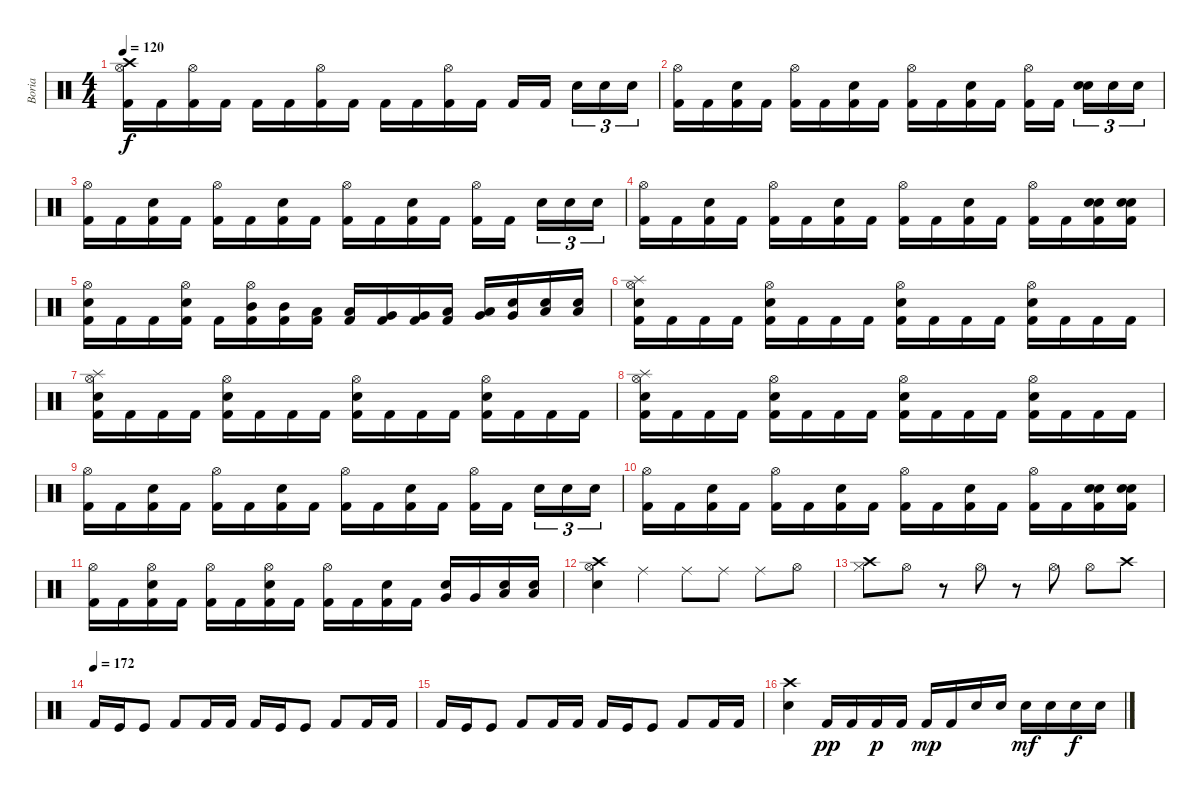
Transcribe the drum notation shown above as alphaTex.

\track ("Boria" "Boria") {instrument percussion}
\staff {score}
\articulation defaults
\ts (4 4)
\tempo 120
\clef neutral
\ks c
("Crash high (hit)" "Hi-Hat (open)" "Kick (hit) 2").16{dy f} "Kick (hit) 2".16 ("Hi-Hat (open)" "Kick (hit) 2").16 "Kick (hit) 2".16 "Kick (hit) 2".16 "Kick (hit) 2".16 ("Hi-Hat (open)" "Kick (hit) 2").16 "Kick (hit) 2".16 "Kick (hit) 2".16 "Kick (hit) 2".16 ("Hi-Hat (open)" "Kick (hit) 2").16 "Kick (hit) 2".16 "Kick (hit) 2".16 "Kick (hit) 2".16 "Snare (hit) 2".16{tu (3 2)} "Snare (hit) 2".16{tu (3 2)} "Snare (hit) 2".16{tu (3 2)} |
("Hi-Hat (open)" "Kick (hit) 2").16 "Kick (hit) 2".16 ("Electric Snare (hit)" "Kick (hit) 2").16 "Kick (hit) 2".16 ("Hi-Hat (open)" "Kick (hit) 2").16 "Kick (hit) 2".16 ("Electric Snare (hit)" "Kick (hit) 2").16 "Kick (hit) 2".16 ("Hi-Hat (open)" "Kick (hit) 2").16 "Kick (hit) 2".16 ("Electric Snare (hit)" "Kick (hit) 2").16 "Kick (hit) 2".16 ("Hi-Hat (open)" "Kick (hit) 2").16 "Kick (hit) 2".16 ("Electric Snare (hit)" "Snare (hit) 2").16{tu (3 2)} "Snare (hit) 2".16{tu (3 2)} "Snare (hit) 2".16{tu (3 2)} |
("Hi-Hat (open)" "Kick (hit) 2").16 "Kick (hit) 2".16 ("Electric Snare (hit)" "Kick (hit) 2").16 "Kick (hit) 2".16 ("Hi-Hat (open)" "Kick (hit) 2").16 "Kick (hit) 2".16 ("Electric Snare (hit)" "Kick (hit) 2").16 "Kick (hit) 2".16 ("Hi-Hat (open)" "Kick (hit) 2").16 "Kick (hit) 2".16 ("Electric Snare (hit)" "Kick (hit) 2").16 "Kick (hit) 2".16 ("Hi-Hat (open)" "Kick (hit) 2").16 "Kick (hit) 2".16 "Snare (hit) 2".16{tu (3 2)} "Snare (hit) 2".16{tu (3 2)} "Snare (hit) 2".16{tu (3 2)} |
("Hi-Hat (open)" "Kick (hit) 2").16 "Kick (hit) 2".16 ("Electric Snare (hit)" "Kick (hit) 2").16 "Kick (hit) 2".16 ("Hi-Hat (open)" "Kick (hit) 2").16 "Kick (hit) 2".16 ("Electric Snare (hit)" "Kick (hit) 2").16 "Kick (hit) 2".16 ("Hi-Hat (open)" "Kick (hit) 2").16 "Kick (hit) 2".16 ("Electric Snare (hit)" "Kick (hit) 2").16 "Kick (hit) 2".16 ("Hi-Hat (open)" "Kick (hit) 2").16 "Kick (hit) 2".16 ("Electric Snare (hit)" "Kick (hit) 2" "Snare (hit) 2").16 ("Electric Snare (hit)" "Kick (hit) 2" "Snare (hit) 2").16 |
("Hi-Hat (open)" "Snare (hit) 2" "Kick (hit) 2").16 "Kick (hit) 2".16 "Kick (hit) 2".16 ("Hi-Hat (open)" "Snare (hit) 2" "Kick (hit) 2").16 "Kick (hit) 2".16 ("Hi-Hat (open)" "Mid Tom (hit)" "Kick (hit) 2").16 ("Mid Tom (hit)" "Kick (hit) 2").16 ("Low Tom (hit)" "Kick (hit) 2").16 ("Low Tom (hit)" "Kick (hit) 2").16 ("Very Low Tom (hit)" "Kick (hit) 2").16 ("Very Low Tom (hit)" "Kick (hit) 2").16 ("Low Floor Tom (hit)" "Kick (hit) 2").16 ("Low Floor Tom (hit)" "Very Low Tom (hit)").16 ("Electric Snare (hit)" "Very Low Tom (hit)").16 ("Snare (hit) 2" "Low Floor Tom (hit)").16 ("Electric Snare (hit)" "Low Floor Tom (hit)").16 |
("Snare (hit) 2" "Splash (hit)" "Hi-Hat (open)" "Kick (hit) 2").16 "Kick (hit) 2".16 "Kick (hit) 2".16 "Kick (hit) 2".16 ("Hi-Hat (open)" "Snare (hit) 2" "Kick (hit) 2").16 "Kick (hit) 2".16 "Kick (hit) 2".16 "Kick (hit) 2".16 ("Snare (hit) 2" "Hi-Hat (open)" "Kick (hit) 2").16 "Kick (hit) 2".16 "Kick (hit) 2".16 "Kick (hit) 2".16 ("Hi-Hat (open)" "Snare (hit) 2" "Kick (hit) 2").16 "Kick (hit) 2".16 "Kick (hit) 2".16 "Kick (hit) 2".16 |
("Snare (hit) 2" "Splash (hit)" "Hi-Hat (open)" "Kick (hit) 2").16 "Kick (hit) 2".16 "Kick (hit) 2".16 "Kick (hit) 2".16 ("Hi-Hat (open)" "Snare (hit) 2" "Kick (hit) 2").16 "Kick (hit) 2".16 "Kick (hit) 2".16 "Kick (hit) 2".16 ("Snare (hit) 2" "Hi-Hat (open)" "Kick (hit) 2").16 "Kick (hit) 2".16 "Kick (hit) 2".16 "Kick (hit) 2".16 ("Hi-Hat (open)" "Snare (hit) 2" "Kick (hit) 2").16 "Kick (hit) 2".16 "Kick (hit) 2".16 "Kick (hit) 2".16 |
("Snare (hit) 2" "Splash (hit)" "Hi-Hat (open)" "Kick (hit) 2").16 "Kick (hit) 2".16 "Kick (hit) 2".16 "Kick (hit) 2".16 ("Hi-Hat (open)" "Snare (hit) 2" "Kick (hit) 2").16 "Kick (hit) 2".16 "Kick (hit) 2".16 "Kick (hit) 2".16 ("Snare (hit) 2" "Hi-Hat (open)" "Kick (hit) 2").16 "Kick (hit) 2".16 "Kick (hit) 2".16 "Kick (hit) 2".16 ("Hi-Hat (open)" "Snare (hit) 2" "Kick (hit) 2").16 "Kick (hit) 2".16 "Kick (hit) 2".16 "Kick (hit) 2".16 |
("Hi-Hat (open)" "Kick (hit) 2").16 "Kick (hit) 2".16 ("Electric Snare (hit)" "Kick (hit) 2").16 "Kick (hit) 2".16 ("Hi-Hat (open)" "Kick (hit) 2").16 "Kick (hit) 2".16 ("Electric Snare (hit)" "Kick (hit) 2").16 "Kick (hit) 2".16 ("Hi-Hat (open)" "Kick (hit) 2").16 "Kick (hit) 2".16 ("Electric Snare (hit)" "Kick (hit) 2").16 "Kick (hit) 2".16 ("Hi-Hat (open)" "Kick (hit) 2").16 "Kick (hit) 2".16 "Snare (hit) 2".16{tu (3 2)} "Snare (hit) 2".16{tu (3 2)} "Snare (hit) 2".16{tu (3 2)} |
("Hi-Hat (open)" "Kick (hit) 2").16 "Kick (hit) 2".16 ("Electric Snare (hit)" "Kick (hit) 2").16 "Kick (hit) 2".16 ("Hi-Hat (open)" "Kick (hit) 2").16 "Kick (hit) 2".16 ("Electric Snare (hit)" "Kick (hit) 2").16 "Kick (hit) 2".16 ("Hi-Hat (open)" "Kick (hit) 2").16 "Kick (hit) 2".16 ("Electric Snare (hit)" "Kick (hit) 2").16 "Kick (hit) 2".16 ("Hi-Hat (open)" "Kick (hit) 2").16 "Kick (hit) 2".16 ("Electric Snare (hit)" "Kick (hit) 2" "Snare (hit) 2").16 ("Electric Snare (hit)" "Kick (hit) 2" "Snare (hit) 2").16 |
("Hi-Hat (open)" "Kick (hit) 2").16 "Kick (hit) 2".16 ("Hi-Hat (open)" "Electric Snare (hit)" "Kick (hit) 2").16 "Kick (hit) 2".16 ("Hi-Hat (open)" "Kick (hit) 2").16 "Kick (hit) 2".16 ("Hi-Hat (open)" "Electric Snare (hit)" "Kick (hit) 2").16 "Kick (hit) 2".16 ("Hi-Hat (open)" "Kick (hit) 2").16 "Kick (hit) 2".16 ("Electric Snare (hit)" "Kick (hit) 2").16 "Kick (hit) 2".16 ("Snare (hit) 2" "Very Low Tom (hit)").16 "Very Low Tom (hit)".16 ("Electric Snare (hit)" "Low Floor Tom (hit)").16 ("Electric Snare (hit)" "Low Floor Tom (hit)").16 |
("Crash high (hit)" "Hi-Hat (open)" "Snare (hit) 2").4 "Ride (middle)".4 "Ride (middle)".8 "Ride (middle)".8 "Ride (middle)".8 "Hi-Hat (open)".8 |
("Hi-Hat (closed)" "Crash high (hit)").8 "Hi-Hat (open)".8 r.8 "Hi-Hat (open)".8 r.8 "Hi-Hat (open)".8 "Hi-Hat (open)".8 "Crash high (hit)".8 |
\tempo (172)
"Kick (hit) 2".16 "Kick (hit)".16 "Kick (hit)".8 "Kick (hit) 2".8 "Kick (hit) 2".16 "Kick (hit) 2".16 "Kick (hit) 2".16 "Kick (hit)".16 "Kick (hit)".8 "Kick (hit) 2".8 "Kick (hit) 2".16 "Kick (hit) 2".16 |
"Kick (hit) 2".16 "Kick (hit)".16 "Kick (hit)".8 "Kick (hit) 2".8 "Kick (hit) 2".16 "Kick (hit) 2".16 "Kick (hit) 2".16 "Kick (hit)".16 "Kick (hit)".8 "Kick (hit) 2".8 "Kick (hit) 2".16 "Kick (hit) 2".16 |
("Snare (hit) 2" "Crash high (hit)").4 "Kick (hit) 2".16{dy pp} "Kick (hit) 2".16 "Kick (hit) 2".16{dy p} "Kick (hit) 2".16 "Kick (hit) 2".16{dy mp} "Kick (hit) 2".16 "Snare (hit) 2".16 "Snare (hit) 2".16 "Snare (hit) 2".16{dy mf} "Snare (hit) 2".16 "Snare (hit) 2".16{dy f} "Snare (hit) 2".16
